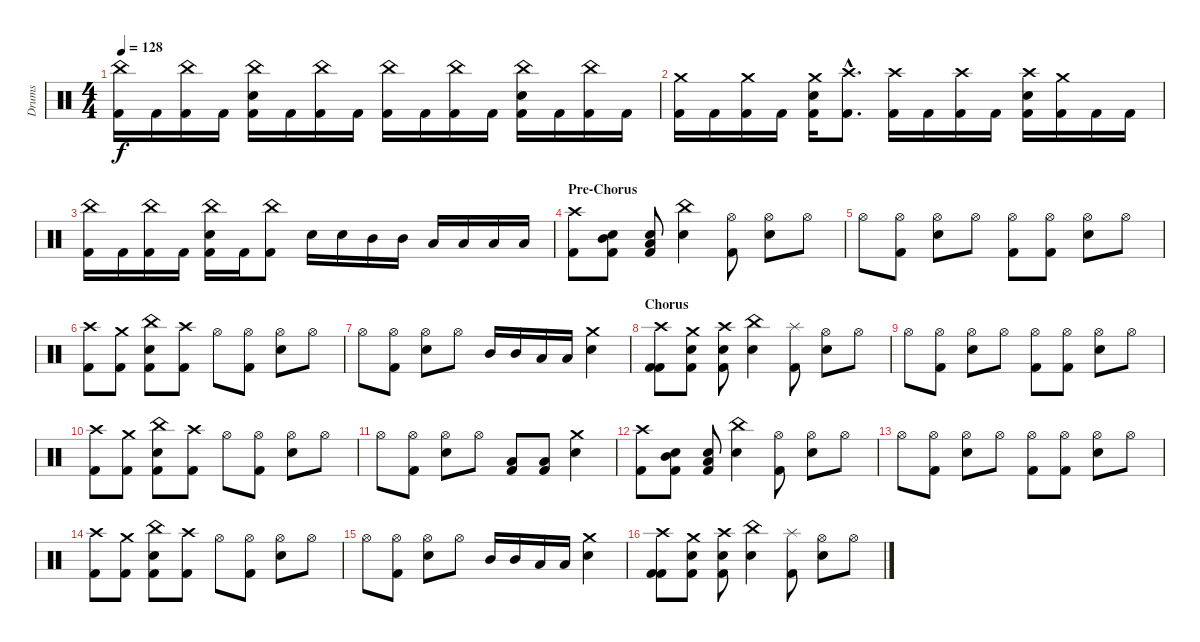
\track ("Drums" "Drums") {instrument percussion}
\staff {score}
\articulation defaults
\ts (4 4)
\tempo 128
\clef neutral
\ks c
("China (hit)" "Kick (hit) 2").16{dy f} "Kick (hit) 2".16 ("China (hit)" "Kick (hit) 2").16 "Kick (hit) 2".16 ("China (hit)" "Snare (hit) 2" "Kick (hit) 2").16 "Kick (hit) 2".16 ("China (hit)" "Kick (hit) 2").16 "Kick (hit) 2".16 ("China (hit)" "Kick (hit) 2").16 "Kick (hit) 2".16 ("China (hit)" "Kick (hit) 2").16 "Kick (hit) 2".16 ("China (hit)" "Snare (hit) 2" "Kick (hit) 2").16 "Kick (hit) 2".16 ("China (hit)" "Kick (hit) 2").16 "Kick (hit) 2".16 |
("Crash medium (hit)" "Kick (hit) 2").16 "Kick (hit) 2".16 ("Crash medium (hit)" "Kick (hit) 2").16 "Kick (hit) 2".16 ("Crash medium (hit)" "Snare (hit) 2" "Kick (hit) 2").16 ("Crash high (hit)"{hac} "Kick (hit) 2"{hac}).8{d} ("Crash high (hit)" "Kick (hit) 2").16 "Kick (hit) 2".16 ("Crash high (hit)" "Kick (hit) 2").16 "Kick (hit) 2".16 ("Crash high (hit)" "Snare (hit) 2" "Kick (hit) 2").16 ("Crash medium (hit)" "Kick (hit) 2").16 "Kick (hit) 2".16 "Kick (hit) 2".16 |
("China (hit)" "Kick (hit) 2").16 "Kick (hit) 2".16 ("China (hit)" "Kick (hit) 2").16 "Kick (hit) 2".16 ("China (hit)" "Snare (hit) 2" "Kick (hit) 2").16 "Kick (hit) 2".16 ("China (hit)" "Kick (hit) 2").8 "Snare (hit) 2".16 "Snare (hit) 2".16 "Mid Tom (hit)".16 "Mid Tom (hit)".16 "Low Tom (hit)".16 "Low Tom (hit)".16 "Low Floor Tom (hit)".16 "Low Floor Tom (hit)".16 |
\section ("" "Pre-Chorus")
("Crash high (hit)" "Kick (hit) 2").8 ("Snare (hit) 2" "Mid Tom (hit)" "Kick (hit) 2").8 ("Snare (hit) 2" "Low Tom (hit)" "Kick (hit) 2").8 ("China (hit)" "Snare (hit) 2").4 ("Hi-Hat (open)" "Kick (hit) 2").8 ("Hi-Hat (open)" "Snare (hit) 2").8 "Hi-Hat (open)".8 |
"Hi-Hat (open)".8 ("Hi-Hat (open)" "Kick (hit) 2").8 ("Hi-Hat (open)" "Snare (hit) 2").8 "Hi-Hat (open)".8 ("Hi-Hat (open)" "Kick (hit) 2").8 ("Hi-Hat (open)" "Kick (hit) 2").8 ("Hi-Hat (open)" "Snare (hit) 2").8 "Hi-Hat (open)".8 |
("Crash high (hit)" "Kick (hit) 2").8 ("Crash medium (hit)" "Kick (hit) 2").8 ("China (hit)" "Snare (hit) 2" "Kick (hit) 2").8 ("Crash high (hit)" "Kick (hit) 2").8 "Hi-Hat (open)".8 ("Hi-Hat (open)" "Kick (hit) 2").8 ("Hi-Hat (open)" "Snare (hit) 2").8 "Hi-Hat (open)".8 |
"Hi-Hat (open)".8 ("Hi-Hat (open)" "Kick (hit) 2").8 ("Hi-Hat (open)" "Snare (hit) 2").8 "Hi-Hat (open)".8 "Mid Tom (hit)".16 "Mid Tom (hit)".16 "Low Tom (hit)".16 "Low Tom (hit)".16 ("Crash medium (hit)" "Snare (hit) 2").4 |
\section ("" "Chorus")
("Crash high (hit)" "Kick (hit) 2" "Kick (hit) 2").8 ("Crash medium (hit)" "Snare (hit) 2" "Kick (hit) 2").8 ("Crash high (hit)" "Snare (hit) 2" "Kick (hit) 2").8 ("China (hit)" "Snare (hit) 2").4 ("Splash (hit)" "Kick (hit) 2").8 ("Hi-Hat (open)" "Snare (hit) 2").8 "Hi-Hat (open)".8 |
"Hi-Hat (open)".8 ("Hi-Hat (open)" "Kick (hit) 2").8 ("Hi-Hat (open)" "Snare (hit) 2").8 "Hi-Hat (open)".8 ("Hi-Hat (open)" "Kick (hit) 2").8 ("Hi-Hat (open)" "Kick (hit) 2").8 ("Hi-Hat (open)" "Snare (hit) 2").8 "Hi-Hat (open)".8 |
("Crash high (hit)" "Kick (hit) 2").8 ("Crash medium (hit)" "Kick (hit) 2").8 ("China (hit)" "Snare (hit) 2" "Kick (hit) 2").8 ("Crash high (hit)" "Kick (hit) 2").8 "Hi-Hat (open)".8 ("Hi-Hat (open)" "Kick (hit) 2").8 ("Hi-Hat (open)" "Snare (hit) 2").8 "Hi-Hat (open)".8 |
"Hi-Hat (open)".8 ("Hi-Hat (open)" "Kick (hit) 2").8 ("Hi-Hat (open)" "Snare (hit) 2").8 "Hi-Hat (open)".8 ("Low Tom (hit)" "Kick (hit) 2").8 ("Low Floor Tom (hit)" "Kick (hit) 2").8 ("Crash medium (hit)" "Snare (hit) 2").4 |
("Crash high (hit)" "Kick (hit) 2").8 ("Snare (hit) 2" "Mid Tom (hit)" "Kick (hit) 2").8 ("Snare (hit) 2" "Low Tom (hit)" "Kick (hit) 2").8 ("China (hit)" "Snare (hit) 2").4 ("Hi-Hat (open)" "Kick (hit) 2").8 ("Hi-Hat (open)" "Snare (hit) 2").8 "Hi-Hat (open)".8 |
"Hi-Hat (open)".8 ("Hi-Hat (open)" "Kick (hit) 2").8 ("Hi-Hat (open)" "Snare (hit) 2").8 "Hi-Hat (open)".8 ("Hi-Hat (open)" "Kick (hit) 2").8 ("Hi-Hat (open)" "Kick (hit) 2").8 ("Hi-Hat (open)" "Snare (hit) 2").8 "Hi-Hat (open)".8 |
("Crash high (hit)" "Kick (hit) 2").8 ("Crash medium (hit)" "Kick (hit) 2").8 ("China (hit)" "Snare (hit) 2" "Kick (hit) 2").8 ("Crash high (hit)" "Kick (hit) 2").8 "Hi-Hat (open)".8 ("Hi-Hat (open)" "Kick (hit) 2").8 ("Hi-Hat (open)" "Snare (hit) 2").8 "Hi-Hat (open)".8 |
"Hi-Hat (open)".8 ("Hi-Hat (open)" "Kick (hit) 2").8 ("Hi-Hat (open)" "Snare (hit) 2").8 "Hi-Hat (open)".8 "Mid Tom (hit)".16 "Mid Tom (hit)".16 "Low Tom (hit)".16 "Low Tom (hit)".16 ("Crash medium (hit)" "Snare (hit) 2").4 |
("Crash high (hit)" "Kick (hit) 2" "Kick (hit) 2").8 ("Crash medium (hit)" "Snare (hit) 2" "Kick (hit) 2").8 ("Crash high (hit)" "Snare (hit) 2" "Kick (hit) 2").8 ("China (hit)" "Snare (hit) 2").4 ("Splash (hit)" "Kick (hit) 2").8 ("Hi-Hat (open)" "Snare (hit) 2").8 "Hi-Hat (open)".8
